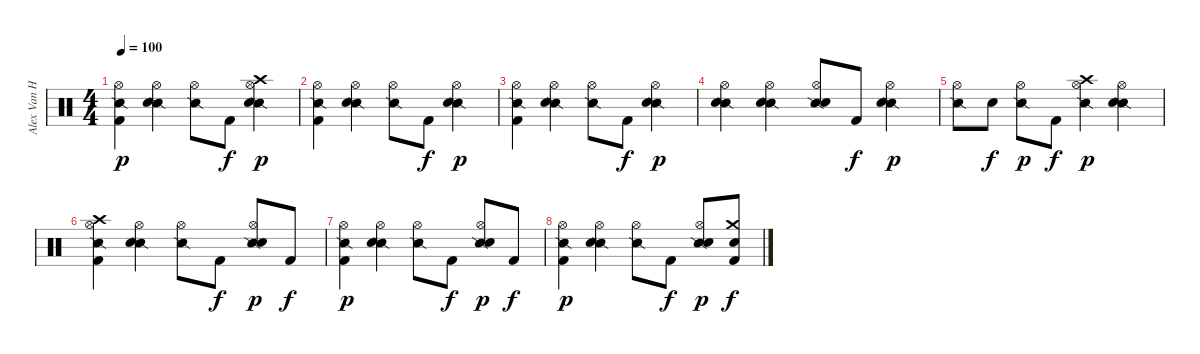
\track ("Alex Van Halen" "Alex Van H") {instrument percussion}
\staff {score}
\articulation defaults
\ts (4 4)
\tempo 100
\clef neutral
\ks c
("Snare (side stick) 2" "Kick (hit) 2" "Hi-Hat (open)").4{dy p} ("Snare (side stick) 2" "Snare (hit) 2" "Hi-Hat (open)").4 ("Snare (side stick) 2" "Hi-Hat (open)").8 "Kick (hit) 2".8{dy f} ("Crash high (hit)" "Snare (side stick) 2" "Snare (hit) 2" "Hi-Hat (open)").4{dy p} |
("Snare (side stick) 2" "Kick (hit) 2" "Hi-Hat (open)").4 ("Snare (side stick) 2" "Snare (hit) 2" "Hi-Hat (open)").4 ("Snare (side stick) 2" "Hi-Hat (open)").8 "Kick (hit) 2".8{dy f} ("Snare (side stick) 2" "Snare (hit) 2" "Hi-Hat (open)").4{dy p} |
("Snare (side stick) 2" "Kick (hit) 2" "Hi-Hat (open)").4 ("Snare (side stick) 2" "Snare (hit) 2" "Hi-Hat (open)").4 ("Snare (side stick) 2" "Hi-Hat (open)").8 "Kick (hit) 2".8{dy f} ("Snare (side stick) 2" "Snare (hit) 2" "Hi-Hat (open)").4{dy p} |
("Snare (side stick) 2" "Snare (hit) 2" "Hi-Hat (open)").4 ("Snare (side stick) 2" "Snare (hit) 2" "Hi-Hat (open)").4 ("Snare (side stick) 2" "Snare (hit) 2" "Hi-Hat (open)").8 "Kick (hit) 2".8{dy f} ("Snare (side stick) 2" "Snare (hit) 2" "Hi-Hat (open)").4{dy p} |
("Snare (side stick) 2" "Hi-Hat (open)").8 "Snare (hit) 2".8{dy f} ("Snare (side stick) 2" "Hi-Hat (open)").8{dy p} "Kick (hit) 2".8{dy f} ("Crash high (hit)" "Snare (side stick) 2" "Hi-Hat (open)").4{dy p} ("Snare (side stick) 2" "Snare (hit) 2" "Hi-Hat (open)").4 |
("Crash high (hit)" "Snare (side stick) 2" "Kick (hit) 2" "Hi-Hat (open)").4 ("Snare (side stick) 2" "Snare (hit) 2" "Hi-Hat (open)").4 ("Snare (side stick) 2" "Hi-Hat (open)").8 "Kick (hit) 2".8{dy f} ("Snare (side stick) 2" "Snare (hit) 2" "Hi-Hat (open)").8{dy p} "Kick (hit) 2".8{dy f} |
("Snare (side stick) 2" "Kick (hit) 2" "Hi-Hat (open)").4{dy p} ("Snare (side stick) 2" "Snare (hit) 2" "Hi-Hat (open)").4 ("Snare (side stick) 2" "Hi-Hat (open)").8 "Kick (hit) 2".8{dy f} ("Snare (side stick) 2" "Snare (hit) 2" "Hi-Hat (open)").8{dy p} "Kick (hit) 2".8{dy f} |
("Snare (side stick) 2" "Kick (hit) 2" "Hi-Hat (open)").4{dy p} ("Snare (side stick) 2" "Snare (hit) 2" "Hi-Hat (open)").4 ("Snare (side stick) 2" "Hi-Hat (open)").8 "Kick (hit) 2".8{dy f} ("Snare (side stick) 2" "Snare (hit) 2" "Hi-Hat (open)").8{dy p} ("Crash medium (hit)" "Electric Snare (hit)" "Kick (hit) 2").8{dy f}
